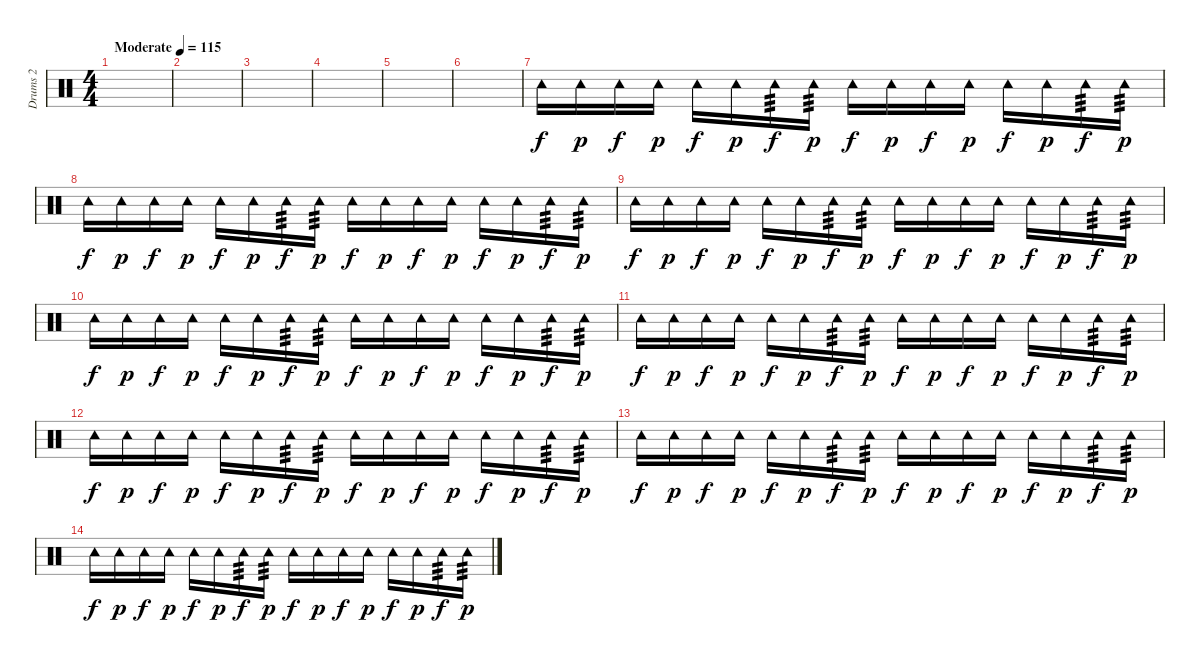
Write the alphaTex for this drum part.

\track ("Drums 2" "Drums 2") {instrument percussion}
\staff {score}
\articulation defaults
\ts (4 4)
\tempo (115 "Moderate")
\clef neutral
\ks c
|
|
|
|
|
|
"Tambourine (hit)".16 "Tambourine (hit)".16{dy p} "Tambourine (hit)".16{dy f} "Tambourine (hit)".16{dy p} "Tambourine (hit)".16{dy f} "Tambourine (hit)".16{dy p} "Tambourine (hit)".16{tp 3 dy f} "Tambourine (hit)".16{tp 3 dy p} "Tambourine (hit)".16{dy f} "Tambourine (hit)".16{dy p} "Tambourine (hit)".16{dy f} "Tambourine (hit)".16{dy p} "Tambourine (hit)".16{dy f} "Tambourine (hit)".16{dy p} "Tambourine (hit)".16{tp 3 dy f} "Tambourine (hit)".16{tp 3 dy p} |
"Tambourine (hit)".16{dy f} "Tambourine (hit)".16{dy p} "Tambourine (hit)".16{dy f} "Tambourine (hit)".16{dy p} "Tambourine (hit)".16{dy f} "Tambourine (hit)".16{dy p} "Tambourine (hit)".16{tp 3 dy f} "Tambourine (hit)".16{tp 3 dy p} "Tambourine (hit)".16{dy f} "Tambourine (hit)".16{dy p} "Tambourine (hit)".16{dy f} "Tambourine (hit)".16{dy p} "Tambourine (hit)".16{dy f} "Tambourine (hit)".16{dy p} "Tambourine (hit)".16{tp 3 dy f} "Tambourine (hit)".16{tp 3 dy p} |
"Tambourine (hit)".16{dy f} "Tambourine (hit)".16{dy p} "Tambourine (hit)".16{dy f} "Tambourine (hit)".16{dy p} "Tambourine (hit)".16{dy f} "Tambourine (hit)".16{dy p} "Tambourine (hit)".16{tp 3 dy f} "Tambourine (hit)".16{tp 3 dy p} "Tambourine (hit)".16{dy f} "Tambourine (hit)".16{dy p} "Tambourine (hit)".16{dy f} "Tambourine (hit)".16{dy p} "Tambourine (hit)".16{dy f} "Tambourine (hit)".16{dy p} "Tambourine (hit)".16{tp 3 dy f} "Tambourine (hit)".16{tp 3 dy p} |
"Tambourine (hit)".16{dy f} "Tambourine (hit)".16{dy p} "Tambourine (hit)".16{dy f} "Tambourine (hit)".16{dy p} "Tambourine (hit)".16{dy f} "Tambourine (hit)".16{dy p} "Tambourine (hit)".16{tp 3 dy f} "Tambourine (hit)".16{tp 3 dy p} "Tambourine (hit)".16{dy f} "Tambourine (hit)".16{dy p} "Tambourine (hit)".16{dy f} "Tambourine (hit)".16{dy p} "Tambourine (hit)".16{dy f} "Tambourine (hit)".16{dy p} "Tambourine (hit)".16{tp 3 dy f} "Tambourine (hit)".16{tp 3 dy p} |
"Tambourine (hit)".16{dy f} "Tambourine (hit)".16{dy p} "Tambourine (hit)".16{dy f} "Tambourine (hit)".16{dy p} "Tambourine (hit)".16{dy f} "Tambourine (hit)".16{dy p} "Tambourine (hit)".16{tp 3 dy f} "Tambourine (hit)".16{tp 3 dy p} "Tambourine (hit)".16{dy f} "Tambourine (hit)".16{dy p} "Tambourine (hit)".16{dy f} "Tambourine (hit)".16{dy p} "Tambourine (hit)".16{dy f} "Tambourine (hit)".16{dy p} "Tambourine (hit)".16{tp 3 dy f} "Tambourine (hit)".16{tp 3 dy p} |
"Tambourine (hit)".16{dy f} "Tambourine (hit)".16{dy p} "Tambourine (hit)".16{dy f} "Tambourine (hit)".16{dy p} "Tambourine (hit)".16{dy f} "Tambourine (hit)".16{dy p} "Tambourine (hit)".16{tp 3 dy f} "Tambourine (hit)".16{tp 3 dy p} "Tambourine (hit)".16{dy f} "Tambourine (hit)".16{dy p} "Tambourine (hit)".16{dy f} "Tambourine (hit)".16{dy p} "Tambourine (hit)".16{dy f} "Tambourine (hit)".16{dy p} "Tambourine (hit)".16{tp 3 dy f} "Tambourine (hit)".16{tp 3 dy p} |
"Tambourine (hit)".16{dy f} "Tambourine (hit)".16{dy p} "Tambourine (hit)".16{dy f} "Tambourine (hit)".16{dy p} "Tambourine (hit)".16{dy f} "Tambourine (hit)".16{dy p} "Tambourine (hit)".16{tp 3 dy f} "Tambourine (hit)".16{tp 3 dy p} "Tambourine (hit)".16{dy f} "Tambourine (hit)".16{dy p} "Tambourine (hit)".16{dy f} "Tambourine (hit)".16{dy p} "Tambourine (hit)".16{dy f} "Tambourine (hit)".16{dy p} "Tambourine (hit)".16{tp 3 dy f} "Tambourine (hit)".16{tp 3 dy p} |
"Tambourine (hit)".16{dy f} "Tambourine (hit)".16{dy p} "Tambourine (hit)".16{dy f} "Tambourine (hit)".16{dy p} "Tambourine (hit)".16{dy f} "Tambourine (hit)".16{dy p} "Tambourine (hit)".16{tp 3 dy f} "Tambourine (hit)".16{tp 3 dy p} "Tambourine (hit)".16{dy f} "Tambourine (hit)".16{dy p} "Tambourine (hit)".16{dy f} "Tambourine (hit)".16{dy p} "Tambourine (hit)".16{dy f} "Tambourine (hit)".16{dy p} "Tambourine (hit)".16{tp 3 dy f} "Tambourine (hit)".16{tp 3 dy p}
